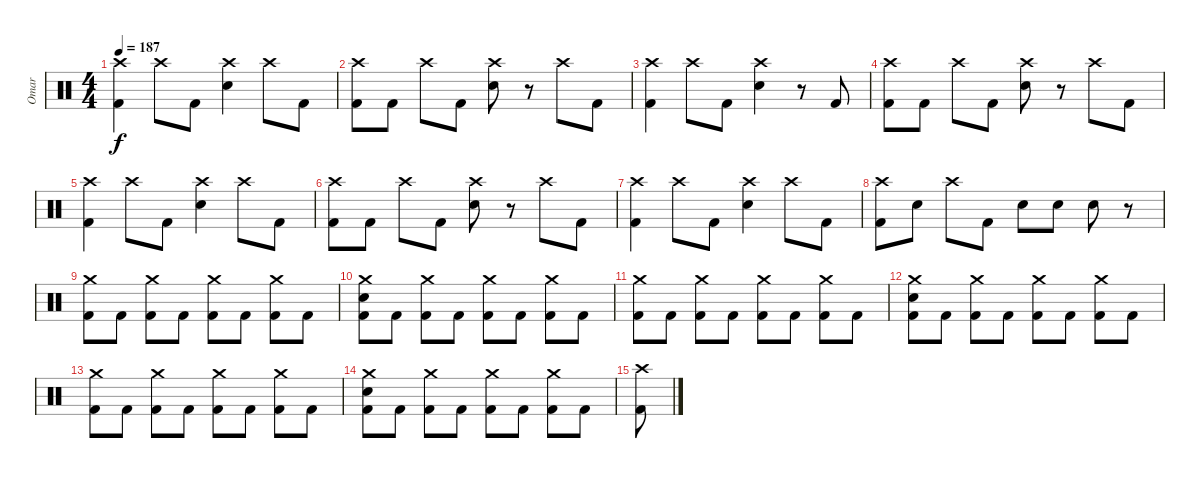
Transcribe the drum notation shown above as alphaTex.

\track ("Omar" "Omar") {instrument percussion}
\staff {score}
\articulation defaults
\ts (4 4)
\tempo 187
\clef neutral
\ks c
("Crash high (hit)" "Kick (hit) 2").4{dy f} "Crash high (hit)".8 "Kick (hit) 2".8 ("Crash high (hit)" "Snare (hit) 2").4 "Crash high (hit)".8 "Kick (hit) 2".8 |
("Crash high (hit)" "Kick (hit) 2").8 "Kick (hit) 2".8 "Crash high (hit)".8 "Kick (hit) 2".8 ("Crash high (hit)" "Snare (hit) 2").8 r.8 "Crash high (hit)".8 "Kick (hit) 2".8 |
("Crash high (hit)" "Kick (hit) 2").4 "Crash high (hit)".8 "Kick (hit) 2".8 ("Crash high (hit)" "Snare (hit) 2").4 r.8 "Kick (hit) 2".8 |
("Crash high (hit)" "Kick (hit) 2").8 "Kick (hit) 2".8 "Crash high (hit)".8 "Kick (hit) 2".8 ("Crash high (hit)" "Snare (hit) 2").8 r.8 "Crash high (hit)".8 "Kick (hit) 2".8 |
("Crash high (hit)" "Kick (hit) 2").4 "Crash high (hit)".8 "Kick (hit) 2".8 ("Crash high (hit)" "Snare (hit) 2").4 "Crash high (hit)".8 "Kick (hit) 2".8 |
("Crash high (hit)" "Kick (hit) 2").8 "Kick (hit) 2".8 "Crash high (hit)".8 "Kick (hit) 2".8 ("Crash high (hit)" "Snare (hit) 2").8 r.8 "Crash high (hit)".8 "Kick (hit) 2".8 |
("Crash high (hit)" "Kick (hit) 2").4 "Crash high (hit)".8 "Kick (hit) 2".8 ("Crash high (hit)" "Snare (hit) 2").4 "Crash high (hit)".8 "Kick (hit) 2".8 |
("Crash high (hit)" "Kick (hit) 2").8 "Snare (hit) 2".8 "Crash high (hit)".8 "Kick (hit) 2".8 "Snare (hit) 2".8 "Snare (hit) 2".8 "Snare (hit) 2".8 r.8 |
("Crash medium (hit)" "Kick (hit) 2").8 "Kick (hit) 2".8 ("Crash medium (hit)" "Kick (hit) 2").8 "Kick (hit) 2".8 ("Crash medium (hit)" "Kick (hit) 2").8 "Kick (hit) 2".8 ("Crash medium (hit)" "Kick (hit) 2").8 "Kick (hit) 2".8 |
("Crash medium (hit)" "Snare (hit) 2" "Kick (hit) 2").8 "Kick (hit) 2".8 ("Crash medium (hit)" "Kick (hit) 2").8 "Kick (hit) 2".8 ("Crash medium (hit)" "Kick (hit) 2").8 "Kick (hit) 2".8 ("Crash medium (hit)" "Kick (hit) 2").8 "Kick (hit) 2".8 |
("Crash medium (hit)" "Kick (hit) 2").8 "Kick (hit) 2".8 ("Crash medium (hit)" "Kick (hit) 2").8 "Kick (hit) 2".8 ("Crash medium (hit)" "Kick (hit) 2").8 "Kick (hit) 2".8 ("Crash medium (hit)" "Kick (hit) 2").8 "Kick (hit) 2".8 |
("Crash medium (hit)" "Snare (hit) 2" "Kick (hit) 2").8 "Kick (hit) 2".8 ("Crash medium (hit)" "Kick (hit) 2").8 "Kick (hit) 2".8 ("Crash medium (hit)" "Kick (hit) 2").8 "Kick (hit) 2".8 ("Crash medium (hit)" "Kick (hit) 2").8 "Kick (hit) 2".8 |
("Crash medium (hit)" "Kick (hit) 2").8 "Kick (hit) 2".8 ("Crash medium (hit)" "Kick (hit) 2").8 "Kick (hit) 2".8 ("Crash medium (hit)" "Kick (hit) 2").8 "Kick (hit) 2".8 ("Crash medium (hit)" "Kick (hit) 2").8 "Kick (hit) 2".8 |
("Crash medium (hit)" "Snare (hit) 2" "Kick (hit) 2").8 "Kick (hit) 2".8 ("Crash medium (hit)" "Kick (hit) 2").8 "Kick (hit) 2".8 ("Crash medium (hit)" "Kick (hit) 2").8 "Kick (hit) 2".8 ("Crash medium (hit)" "Kick (hit) 2").8 "Kick (hit) 2".8 |
("Crash high (hit)" "Kick (hit) 2").8
